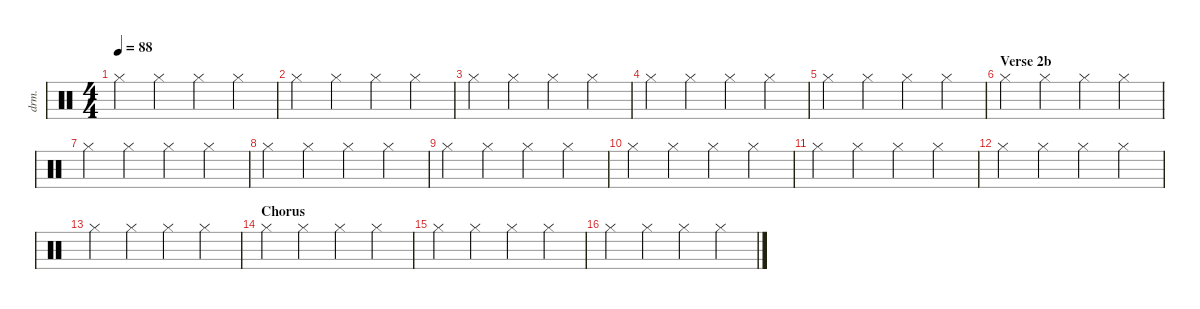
\defaultSystemsLayout 4
\hideDynamics
\bracketExtendMode nobrackets
\otherSystemsTrackNameOrientation horizontal
\track ("Drumkit" "drm.") {instrument percussion}
\staff {score}
\articulation defaults
\ts (4 4)
\tempo 88
\clef neutral
\ks c "Hi-Hat (closed)".4{dy mf beam Down} "Hi-Hat (closed)".4{beam Down} "Hi-Hat (closed)".4{beam Down} "Hi-Hat (closed)".4{beam Down}
|
"Hi-Hat (closed)".4{beam Down} "Hi-Hat (closed)".4{beam Down} "Hi-Hat (closed)".4{beam Down} "Hi-Hat (closed)".4{beam Down} |
"Hi-Hat (closed)".4{beam Down} "Hi-Hat (closed)".4{beam Down} "Hi-Hat (closed)".4{beam Down} "Hi-Hat (closed)".4{beam Down} |
"Hi-Hat (closed)".4{beam Down} "Hi-Hat (closed)".4{beam Down} "Hi-Hat (closed)".4{beam Down} "Hi-Hat (closed)".4{beam Down} |
"Hi-Hat (closed)".4{beam Down} "Hi-Hat (closed)".4{beam Down} "Hi-Hat (closed)".4{beam Down} "Hi-Hat (closed)".4{beam Down} |
\section ("" "Verse 2b")
"Hi-Hat (closed)".4{beam Down} "Hi-Hat (closed)".4{beam Down} "Hi-Hat (closed)".4{beam Down} "Hi-Hat (closed)".4{beam Down} |
"Hi-Hat (closed)".4{beam Down} "Hi-Hat (closed)".4{beam Down} "Hi-Hat (closed)".4{beam Down} "Hi-Hat (closed)".4{beam Down} |
"Hi-Hat (closed)".4{beam Down} "Hi-Hat (closed)".4{beam Down} "Hi-Hat (closed)".4{beam Down} "Hi-Hat (closed)".4{beam Down} |
"Hi-Hat (closed)".4{beam Down} "Hi-Hat (closed)".4{beam Down} "Hi-Hat (closed)".4{beam Down} "Hi-Hat (closed)".4{beam Down} |
"Hi-Hat (closed)".4{beam Down} "Hi-Hat (closed)".4{beam Down} "Hi-Hat (closed)".4{beam Down} "Hi-Hat (closed)".4{beam Down} |
"Hi-Hat (closed)".4{beam Down} "Hi-Hat (closed)".4{beam Down} "Hi-Hat (closed)".4{beam Down} "Hi-Hat (closed)".4{beam Down} |
"Hi-Hat (closed)".4{beam Down} "Hi-Hat (closed)".4{beam Down} "Hi-Hat (closed)".4{beam Down} "Hi-Hat (closed)".4{beam Down} |
"Hi-Hat (closed)".4{beam Down} "Hi-Hat (closed)".4{beam Down} "Hi-Hat (closed)".4{beam Down} "Hi-Hat (closed)".4{beam Down} |
\section ("" "Chorus")
"Hi-Hat (closed)".4{beam Down} "Hi-Hat (closed)".4{beam Down} "Hi-Hat (closed)".4{beam Down} "Hi-Hat (closed)".4{beam Down} |
"Hi-Hat (closed)".4{beam Down} "Hi-Hat (closed)".4{beam Down} "Hi-Hat (closed)".4{beam Down} "Hi-Hat (closed)".4{beam Down} |
"Hi-Hat (closed)".4{beam Down} "Hi-Hat (closed)".4{beam Down} "Hi-Hat (closed)".4{beam Down} "Hi-Hat (closed)".4{beam Down}
